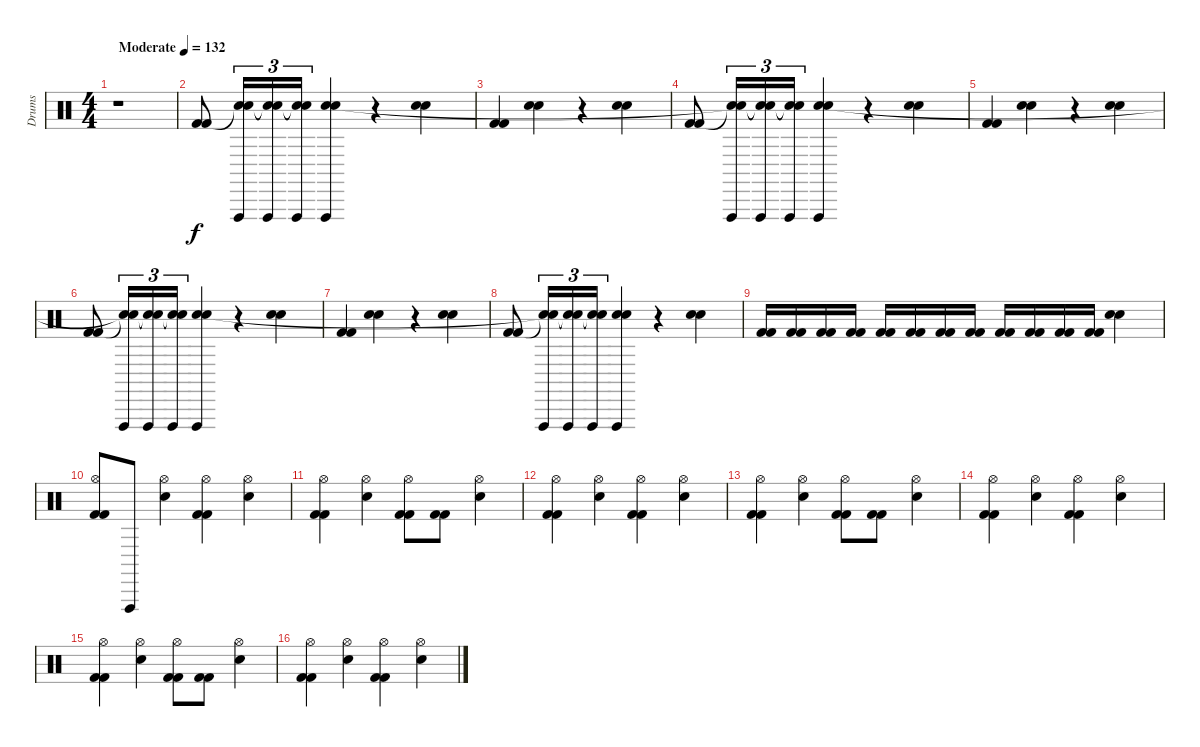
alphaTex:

\track ("Drums" "Drums") {instrument percussion}
\staff {score}
\articulation defaults
\ts (4 4)
\tempo (132 "Moderate")
\clef neutral
\ks c
r.1{dy f} |
("Kick (hit) 2" "Kick (hit) 2").8 ("Vibraslap (hit)" "Snare (hit)"{t} "Snare (hit)").16{tu (3 2)} ("Vibraslap (hit)" "Snare (hit)"{t} "Snare (hit)"{t}).16{tu (3 2)} ("Vibraslap (hit)" "Snare (hit)"{t} "Snare (hit)"{t}).16{tu (3 2)} ("Vibraslap (hit)" "Snare (hit) 2" "Snare (hit) 2").4 r.4 ("Snare (hit) 2" "Snare (hit) 2").4 |
("Kick (hit) 2" "Kick (hit) 2").4 ("Snare (hit) 2" "Snare (hit) 2").4 r.4 ("Snare (hit) 2" "Snare (hit) 2").4 |
("Kick (hit) 2" "Kick (hit) 2").8 ("Vibraslap (hit)" "Snare (hit)"{t} "Snare (hit)"{t}).16{tu (3 2)} ("Vibraslap (hit)" "Snare (hit)"{t} "Snare (hit)"{t}).16{tu (3 2)} ("Vibraslap (hit)" "Snare (hit)"{t} "Snare (hit)"{t}).16{tu (3 2)} ("Vibraslap (hit)" "Snare (hit) 2" "Snare (hit) 2").4 r.4 ("Snare (hit) 2" "Snare (hit) 2").4 |
("Kick (hit) 2" "Kick (hit) 2").4 ("Snare (hit) 2" "Snare (hit) 2").4 r.4 ("Snare (hit) 2" "Snare (hit) 2").4 |
("Kick (hit) 2" "Kick (hit) 2").8 ("Vibraslap (hit)" "Snare (hit)"{t} "Snare (hit)"{t}).16{tu (3 2)} ("Vibraslap (hit)" "Snare (hit)"{t} "Snare (hit)"{t}).16{tu (3 2)} ("Vibraslap (hit)" "Snare (hit)"{t} "Snare (hit)"{t}).16{tu (3 2)} ("Vibraslap (hit)" "Snare (hit) 2" "Snare (hit) 2").4 r.4 ("Snare (hit) 2" "Snare (hit) 2").4 |
("Kick (hit) 2" "Kick (hit) 2").4 ("Snare (hit) 2" "Snare (hit) 2").4 r.4 ("Snare (hit) 2" "Snare (hit) 2").4 |
("Kick (hit) 2" "Kick (hit) 2").8 ("Vibraslap (hit)" "Snare (hit)"{t} "Snare (hit)"{t}).16{tu (3 2)} ("Vibraslap (hit)" "Snare (hit)"{t} "Snare (hit)"{t}).16{tu (3 2)} ("Vibraslap (hit)" "Snare (hit)"{t} "Snare (hit)"{t}).16{tu (3 2)} ("Vibraslap (hit)" "Snare (hit) 2" "Snare (hit) 2").4 r.4 ("Snare (hit) 2" "Snare (hit) 2").4 |
("Kick (hit) 2" "Kick (hit) 2").16 ("Kick (hit) 2" "Kick (hit) 2").16 ("Kick (hit) 2" "Kick (hit) 2").16 ("Kick (hit) 2" "Kick (hit) 2").16 ("Kick (hit) 2" "Kick (hit) 2").16 ("Kick (hit) 2" "Kick (hit) 2").16 ("Kick (hit) 2" "Kick (hit) 2").16 ("Kick (hit) 2" "Kick (hit) 2").16 ("Kick (hit) 2" "Kick (hit) 2").16 ("Kick (hit) 2" "Kick (hit) 2").16 ("Kick (hit) 2" "Kick (hit) 2").16 ("Kick (hit) 2" "Kick (hit) 2").16 ("Snare (hit) 2" "Snare (hit) 2").4 |
("Hi-Hat (open)" "Kick (hit) 2" "Kick (hit) 2").8 "Vibraslap (hit)".8 ("Hi-Hat (open)" "Snare (hit) 2").4 ("Hi-Hat (open)" "Kick (hit) 2" "Kick (hit) 2").4 ("Hi-Hat (open)" "Snare (hit) 2").4 |
("Hi-Hat (open)" "Kick (hit) 2" "Kick (hit) 2").4 ("Hi-Hat (open)" "Snare (hit) 2").4 ("Hi-Hat (open)" "Kick (hit) 2" "Kick (hit) 2").8 ("Kick (hit) 2" "Kick (hit) 2").8 ("Hi-Hat (open)" "Snare (hit) 2").4 |
("Hi-Hat (open)" "Kick (hit) 2" "Kick (hit) 2").4 ("Hi-Hat (open)" "Snare (hit) 2").4 ("Hi-Hat (open)" "Kick (hit) 2" "Kick (hit) 2").4 ("Hi-Hat (open)" "Snare (hit) 2").4 |
("Hi-Hat (open)" "Kick (hit) 2" "Kick (hit) 2").4 ("Hi-Hat (open)" "Snare (hit) 2").4 ("Hi-Hat (open)" "Kick (hit) 2" "Kick (hit) 2").8 ("Kick (hit) 2" "Kick (hit) 2").8 ("Hi-Hat (open)" "Snare (hit) 2").4 |
("Hi-Hat (open)" "Kick (hit) 2" "Kick (hit) 2").4 ("Hi-Hat (open)" "Snare (hit) 2").4 ("Hi-Hat (open)" "Kick (hit) 2" "Kick (hit) 2").4 ("Hi-Hat (open)" "Snare (hit) 2").4 |
("Hi-Hat (open)" "Kick (hit) 2" "Kick (hit) 2").4 ("Hi-Hat (open)" "Snare (hit) 2").4 ("Hi-Hat (open)" "Kick (hit) 2" "Kick (hit) 2").8 ("Kick (hit) 2" "Kick (hit) 2").8 ("Hi-Hat (open)" "Snare (hit) 2").4 |
("Hi-Hat (open)" "Kick (hit) 2" "Kick (hit) 2").4 ("Hi-Hat (open)" "Snare (hit) 2").4 ("Hi-Hat (open)" "Kick (hit) 2" "Kick (hit) 2").4 ("Hi-Hat (open)" "Snare (hit) 2").4
